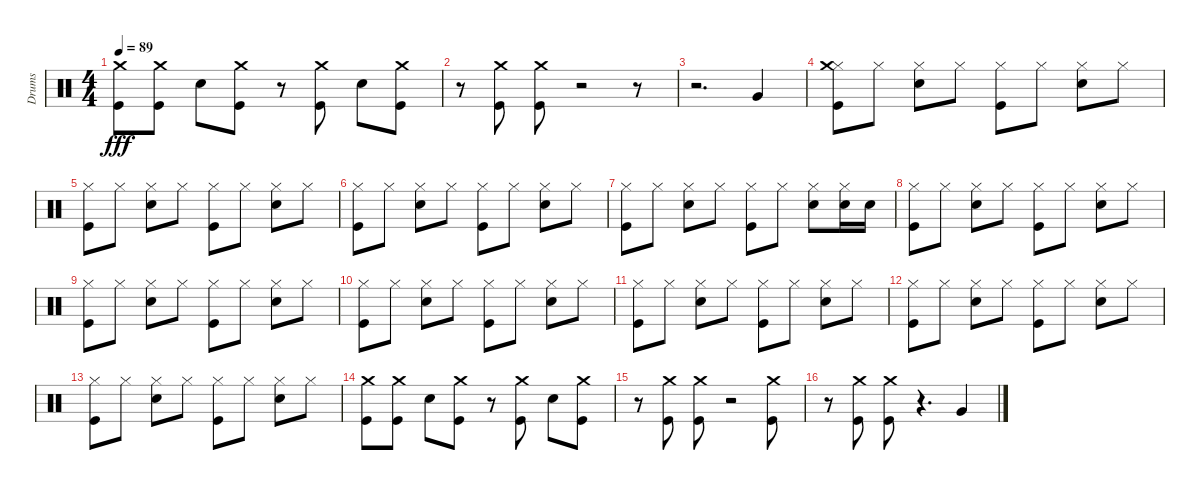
\track ("Drums" "Drums") {instrument percussion}
\staff {score}
\articulation defaults
\ts (4 4)
\tempo 89
\clef neutral
\ks c
("Crash medium (hit)" "Kick (hit)").8{dy fff} ("Crash medium (hit)" "Kick (hit)").8 "Snare (hit) 2".8 ("Crash medium (hit)" "Kick (hit)").8 r.8 ("Crash medium (hit)" "Kick (hit)").8 "Snare (hit) 2".8 ("Crash medium (hit)" "Kick (hit)").8 |
r.8 ("Crash medium (hit)" "Kick (hit)").8 ("Crash medium (hit)" "Kick (hit)").8 r.2 r.8 |
r.2{d} "Very Low Tom (hit)".4 |
("Kick (hit)" "Hi-Hat (closed)" "Crash medium (hit)").8 "Hi-Hat (closed)".8 ("Snare (hit) 2" "Hi-Hat (closed)").8 "Hi-Hat (closed)".8 ("Kick (hit)" "Hi-Hat (closed)").8 "Hi-Hat (closed)".8 ("Snare (hit) 2" "Hi-Hat (closed)").8 "Hi-Hat (closed)".8 |
("Kick (hit)" "Hi-Hat (closed)").8 "Hi-Hat (closed)".8 ("Snare (hit) 2" "Hi-Hat (closed)").8 "Hi-Hat (closed)".8 ("Kick (hit)" "Hi-Hat (closed)").8 "Hi-Hat (closed)".8 ("Snare (hit) 2" "Hi-Hat (closed)").8 "Hi-Hat (closed)".8 |
("Kick (hit)" "Hi-Hat (closed)").8 "Hi-Hat (closed)".8 ("Snare (hit) 2" "Hi-Hat (closed)").8 "Hi-Hat (closed)".8 ("Kick (hit)" "Hi-Hat (closed)").8 "Hi-Hat (closed)".8 ("Snare (hit) 2" "Hi-Hat (closed)").8 "Hi-Hat (closed)".8 |
("Kick (hit)" "Hi-Hat (closed)").8 "Hi-Hat (closed)".8 ("Snare (hit) 2" "Hi-Hat (closed)").8 "Hi-Hat (closed)".8 ("Kick (hit)" "Hi-Hat (closed)").8 "Hi-Hat (closed)".8 ("Snare (hit) 2" "Hi-Hat (closed)").8 ("Snare (hit) 2" "Hi-Hat (closed)").16 "Snare (hit) 2".16 |
("Kick (hit)" "Hi-Hat (closed)").8 "Hi-Hat (closed)".8 ("Snare (hit) 2" "Hi-Hat (closed)").8 "Hi-Hat (closed)".8 ("Kick (hit)" "Hi-Hat (closed)").8 "Hi-Hat (closed)".8 ("Snare (hit) 2" "Hi-Hat (closed)").8 "Hi-Hat (closed)".8 |
("Kick (hit)" "Hi-Hat (closed)").8 "Hi-Hat (closed)".8 ("Snare (hit) 2" "Hi-Hat (closed)").8 "Hi-Hat (closed)".8 ("Kick (hit)" "Hi-Hat (closed)").8 "Hi-Hat (closed)".8 ("Snare (hit) 2" "Hi-Hat (closed)").8 "Hi-Hat (closed)".8 |
("Kick (hit)" "Hi-Hat (closed)").8 "Hi-Hat (closed)".8 ("Snare (hit) 2" "Hi-Hat (closed)").8 "Hi-Hat (closed)".8 ("Kick (hit)" "Hi-Hat (closed)").8 "Hi-Hat (closed)".8 ("Snare (hit) 2" "Hi-Hat (closed)").8 "Hi-Hat (closed)".8 |
("Kick (hit)" "Hi-Hat (closed)").8 "Hi-Hat (closed)".8 ("Snare (hit) 2" "Hi-Hat (closed)").8 "Hi-Hat (closed)".8 ("Kick (hit)" "Hi-Hat (closed)").8 "Hi-Hat (closed)".8 ("Snare (hit) 2" "Hi-Hat (closed)").8 "Hi-Hat (closed)".8 |
("Kick (hit)" "Hi-Hat (closed)").8 "Hi-Hat (closed)".8 ("Snare (hit) 2" "Hi-Hat (closed)").8 "Hi-Hat (closed)".8 ("Kick (hit)" "Hi-Hat (closed)").8 "Hi-Hat (closed)".8 ("Snare (hit) 2" "Hi-Hat (closed)").8 "Hi-Hat (closed)".8 |
("Kick (hit)" "Hi-Hat (closed)").8 "Hi-Hat (closed)".8 ("Snare (hit) 2" "Hi-Hat (closed)").8 "Hi-Hat (closed)".8 ("Kick (hit)" "Hi-Hat (closed)").8 "Hi-Hat (closed)".8 ("Snare (hit) 2" "Hi-Hat (closed)").8 "Hi-Hat (closed)".8 |
("Crash medium (hit)" "Kick (hit)").8 ("Crash medium (hit)" "Kick (hit)").8 "Snare (hit) 2".8 ("Crash medium (hit)" "Kick (hit)").8 r.8 ("Crash medium (hit)" "Kick (hit)").8 "Snare (hit) 2".8 ("Crash medium (hit)" "Kick (hit)").8 |
r.8 ("Crash medium (hit)" "Kick (hit)").8 ("Crash medium (hit)" "Kick (hit)").8 r.2 ("Crash medium (hit)" "Kick (hit)").8 |
r.8 ("Crash medium (hit)" "Kick (hit)").8 ("Crash medium (hit)" "Kick (hit)").8 r.4{d} "Very Low Tom (hit)".4
